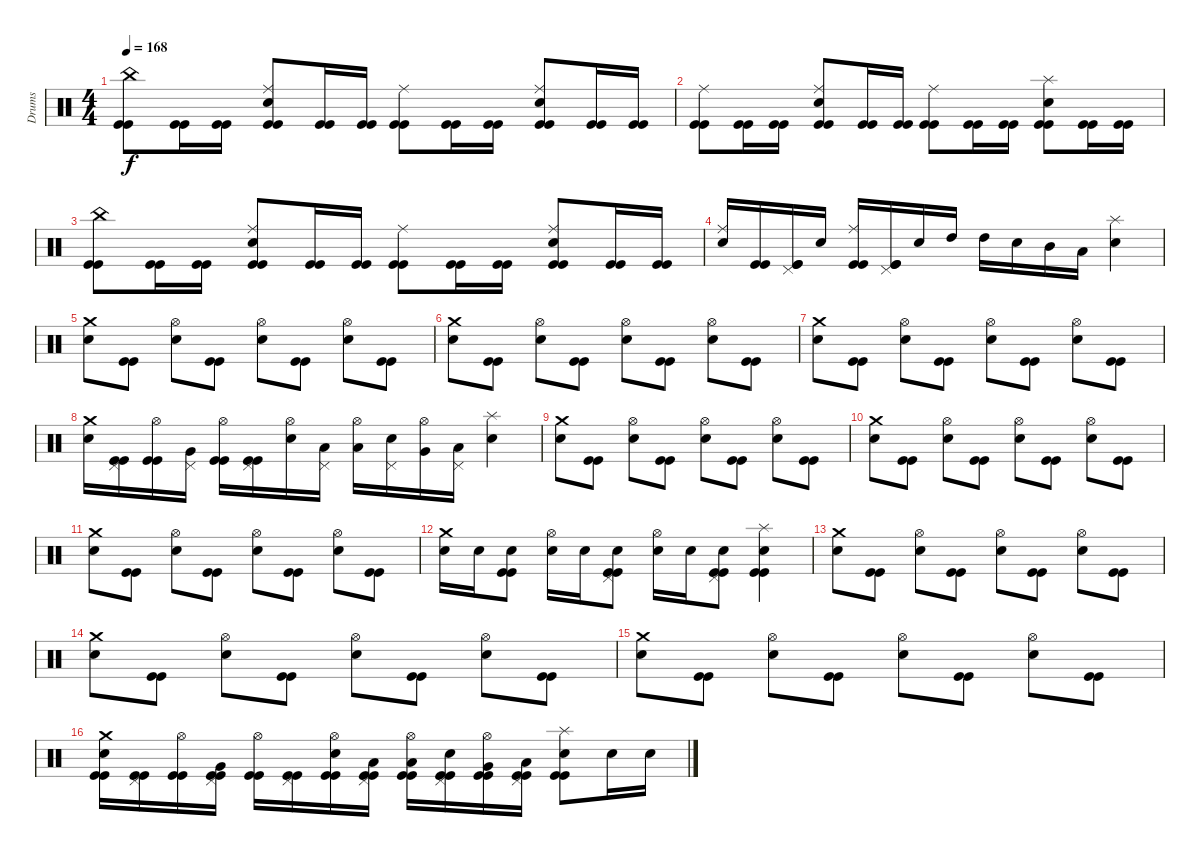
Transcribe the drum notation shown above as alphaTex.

\track ("Drums" "Drums") {instrument percussion}
\staff {score}
\articulation defaults
\ts (4 4)
\tempo 168
\clef neutral
\ks c
("China (hit)" "Kick (hit)" "Kick (hit)").8{dy f} ("Kick (hit)" "Kick (hit)").16 ("Kick (hit)" "Kick (hit)").16 ("Ride (middle)" "Electric Snare (hit)" "Kick (hit)" "Kick (hit)").8 ("Kick (hit)" "Kick (hit)").16 ("Kick (hit)" "Kick (hit)").16 ("Ride (middle)" "Kick (hit)" "Kick (hit)").8 ("Kick (hit)" "Kick (hit)").16 ("Kick (hit)" "Kick (hit)").16 ("Ride (middle)" "Electric Snare (hit)" "Kick (hit)" "Kick (hit)").8 ("Kick (hit)" "Kick (hit)").16 ("Kick (hit)" "Kick (hit)").16 |
("Ride (middle)" "Kick (hit)" "Kick (hit)").8 ("Kick (hit)" "Kick (hit)").16 ("Kick (hit)" "Kick (hit)").16 ("Ride (middle)" "Electric Snare (hit)" "Kick (hit)" "Kick (hit)").8 ("Kick (hit)" "Kick (hit)").16 ("Kick (hit)" "Kick (hit)").16 ("Ride (middle)" "Kick (hit)" "Kick (hit)").8 ("Kick (hit)" "Kick (hit)").16 ("Kick (hit)" "Kick (hit)").16 ("Splash (hit)" "Electric Snare (hit)" "Kick (hit)" "Kick (hit)").8 ("Kick (hit)" "Kick (hit)").16 ("Kick (hit)" "Kick (hit)").16 |
("China (hit)" "Kick (hit)" "Kick (hit)").8 ("Kick (hit)" "Kick (hit)").16 ("Kick (hit)" "Kick (hit)").16 ("Ride (middle)" "Electric Snare (hit)" "Kick (hit)" "Kick (hit)").8 ("Kick (hit)" "Kick (hit)").16 ("Kick (hit)" "Kick (hit)").16 ("Ride (middle)" "Kick (hit)" "Kick (hit)").8 ("Kick (hit)" "Kick (hit)").16 ("Kick (hit)" "Kick (hit)").16 ("Ride (middle)" "Electric Snare (hit)" "Kick (hit)" "Kick (hit)").8 ("Kick (hit)" "Kick (hit)").16 ("Kick (hit)" "Kick (hit)").16 |
("Ride (middle)" "Electric Snare (hit)").16 ("Kick (hit)" "Kick (hit)").16 ("Pedal Hi-Hat (hit)" "Kick (hit)" "Kick (hit)").16 "Electric Snare (hit)".16 ("Ride (middle)" "Kick (hit)" "Kick (hit)").16 ("Pedal Hi-Hat (hit)" "Kick (hit)" "Kick (hit)").16 "Electric Snare (hit)".16 "High Tom (hit)".16 "High Tom (hit)".16 "Electric Snare (hit)".16 "Mid Tom (hit)".16 "Low Tom (hit)".16 ("Splash (hit)" "Electric Snare (hit)").4 |
("Crash medium (hit)" "Electric Snare (hit)").8 ("Kick (hit)" "Kick (hit)").8 ("Hi-Hat (open)" "Electric Snare (hit)").8 ("Kick (hit)" "Kick (hit)").8 ("Hi-Hat (open)" "Electric Snare (hit)").8 ("Kick (hit)" "Kick (hit)").8 ("Hi-Hat (open)" "Electric Snare (hit)").8 ("Kick (hit)" "Kick (hit)").8 |
("Crash medium (hit)" "Electric Snare (hit)").8 ("Kick (hit)" "Kick (hit)").8 ("Hi-Hat (open)" "Electric Snare (hit)").8 ("Kick (hit)" "Kick (hit)").8 ("Hi-Hat (open)" "Electric Snare (hit)").8 ("Kick (hit)" "Kick (hit)").8 ("Hi-Hat (open)" "Electric Snare (hit)").8 ("Kick (hit)" "Kick (hit)").8 |
("Crash medium (hit)" "Electric Snare (hit)").8 ("Kick (hit)" "Kick (hit)").8 ("Hi-Hat (open)" "Electric Snare (hit)").8 ("Kick (hit)" "Kick (hit)").8 ("Hi-Hat (open)" "Electric Snare (hit)").8 ("Kick (hit)" "Kick (hit)").8 ("Hi-Hat (open)" "Electric Snare (hit)").8 ("Kick (hit)" "Kick (hit)").8 |
("Crash medium (hit)" "Electric Snare (hit)").16 ("Pedal Hi-Hat (hit)" "Kick (hit)" "Kick (hit)").16 ("Hi-Hat (open)" "Kick (hit)" "Kick (hit)").16 ("Pedal Hi-Hat (hit)" "Very Low Tom (hit)").16 ("Hi-Hat (open)" "Kick (hit)" "Kick (hit)").16 ("Pedal Hi-Hat (hit)" "Kick (hit)" "Kick (hit)").16 ("Hi-Hat (open)" "Electric Snare (hit)").16 ("Pedal Hi-Hat (hit)" "Low Tom (hit)").16 ("Hi-Hat (open)" "Low Tom (hit)").16 ("Pedal Hi-Hat (hit)" "Electric Snare (hit)").16 ("Hi-Hat (open)" "Very Low Tom (hit)").16 ("Pedal Hi-Hat (hit)" "Low Floor Tom (hit)").16 ("Splash (hit)" "Electric Snare (hit)").4 |
("Crash medium (hit)" "Electric Snare (hit)").8 ("Kick (hit)" "Kick (hit)").8 ("Hi-Hat (open)" "Electric Snare (hit)").8 ("Kick (hit)" "Kick (hit)").8 ("Hi-Hat (open)" "Electric Snare (hit)").8 ("Kick (hit)" "Kick (hit)").8 ("Hi-Hat (open)" "Electric Snare (hit)").8 ("Kick (hit)" "Kick (hit)").8 |
("Crash medium (hit)" "Electric Snare (hit)").8 ("Kick (hit)" "Kick (hit)").8 ("Hi-Hat (open)" "Electric Snare (hit)").8 ("Kick (hit)" "Kick (hit)").8 ("Hi-Hat (open)" "Electric Snare (hit)").8 ("Kick (hit)" "Kick (hit)").8 ("Hi-Hat (open)" "Electric Snare (hit)").8 ("Kick (hit)" "Kick (hit)").8 |
("Crash medium (hit)" "Electric Snare (hit)").8 ("Kick (hit)" "Kick (hit)").8 ("Hi-Hat (open)" "Electric Snare (hit)").8 ("Kick (hit)" "Kick (hit)").8 ("Hi-Hat (open)" "Electric Snare (hit)").8 ("Kick (hit)" "Kick (hit)").8 ("Hi-Hat (open)" "Electric Snare (hit)").8 ("Kick (hit)" "Kick (hit)").8 |
("Crash medium (hit)" "Electric Snare (hit)").16 "Electric Snare (hit)".16 ("Electric Snare (hit)" "Kick (hit)" "Kick (hit)").8 ("Hi-Hat (open)" "Electric Snare (hit)").16 "Electric Snare (hit)".16 ("Pedal Hi-Hat (hit)" "Electric Snare (hit)" "Kick (hit)" "Kick (hit)").8 ("Hi-Hat (open)" "Electric Snare (hit)").16 "Electric Snare (hit)".16 ("Pedal Hi-Hat (hit)" "Electric Snare (hit)" "Kick (hit)" "Kick (hit)").8 ("Splash (hit)" "Electric Snare (hit)" "Kick (hit)" "Kick (hit)").4 |
("Crash medium (hit)" "Electric Snare (hit)").8 ("Kick (hit)" "Kick (hit)").8 ("Hi-Hat (open)" "Electric Snare (hit)").8 ("Kick (hit)" "Kick (hit)").8 ("Hi-Hat (open)" "Electric Snare (hit)").8 ("Kick (hit)" "Kick (hit)").8 ("Hi-Hat (open)" "Electric Snare (hit)").8 ("Kick (hit)" "Kick (hit)").8 |
("Crash medium (hit)" "Electric Snare (hit)").8 ("Kick (hit)" "Kick (hit)").8 ("Hi-Hat (open)" "Electric Snare (hit)").8 ("Kick (hit)" "Kick (hit)").8 ("Hi-Hat (open)" "Electric Snare (hit)").8 ("Kick (hit)" "Kick (hit)").8 ("Hi-Hat (open)" "Electric Snare (hit)").8 ("Kick (hit)" "Kick (hit)").8 |
("Crash medium (hit)" "Electric Snare (hit)").8 ("Kick (hit)" "Kick (hit)").8 ("Hi-Hat (open)" "Electric Snare (hit)").8 ("Kick (hit)" "Kick (hit)").8 ("Hi-Hat (open)" "Electric Snare (hit)").8 ("Kick (hit)" "Kick (hit)").8 ("Hi-Hat (open)" "Electric Snare (hit)").8 ("Kick (hit)" "Kick (hit)").8 |
("Crash medium (hit)" "Electric Snare (hit)" "Kick (hit)" "Kick (hit)").16 ("Pedal Hi-Hat (hit)" "Kick (hit)" "Kick (hit)").16 ("Hi-Hat (open)" "Kick (hit)" "Kick (hit)").16 ("Pedal Hi-Hat (hit)" "Very Low Tom (hit)" "Kick (hit)" "Kick (hit)").16 ("Hi-Hat (open)" "Kick (hit)" "Kick (hit)").16 ("Pedal Hi-Hat (hit)" "Kick (hit)" "Kick (hit)").16 ("Hi-Hat (open)" "Electric Snare (hit)" "Kick (hit)" "Kick (hit)").16 ("Pedal Hi-Hat (hit)" "Low Tom (hit)" "Kick (hit)" "Kick (hit)").16 ("Hi-Hat (open)" "Low Tom (hit)" "Kick (hit)" "Kick (hit)").16 ("Pedal Hi-Hat (hit)" "Electric Snare (hit)" "Kick (hit)" "Kick (hit)").16 ("Hi-Hat (open)" "Very Low Tom (hit)" "Kick (hit)" "Kick (hit)").16 ("Pedal Hi-Hat (hit)" "Low Floor Tom (hit)" "Kick (hit)" "Kick (hit)").16 ("Splash (hit)" "Electric Snare (hit)" "Kick (hit)" "Kick (hit)").8 "Electric Snare (hit)".16 "Electric Snare (hit)".16
